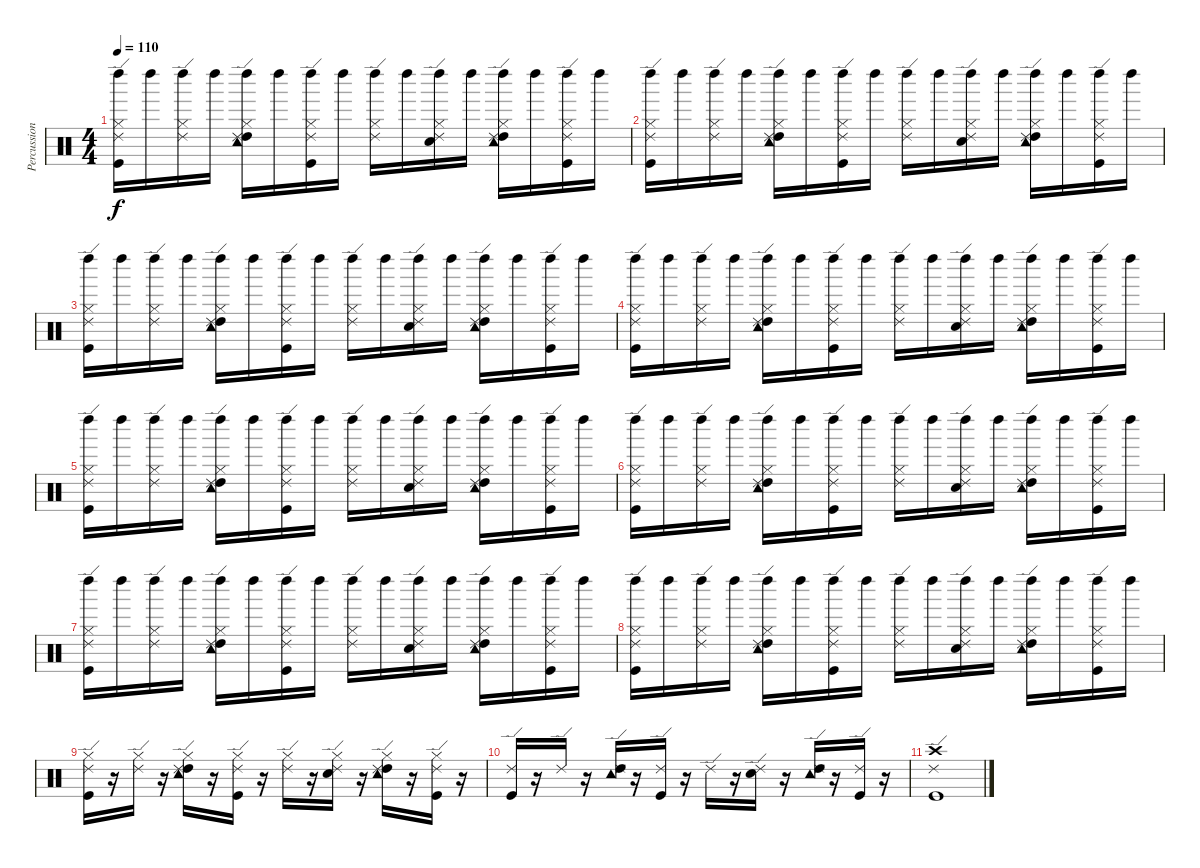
\track ("Percussions" "Percussion") {instrument percussion}
\staff {score}
\articulation defaults
\ts (4 4)
\tempo 110
\clef neutral
\ks c
("Left Maraca (hit)" "Hi-Hat (closed)" "Ride (edge) 2" "Kick (hit)").16{dy f} "Left Maraca (hit)".16 ("Left Maraca (hit)" "Hi-Hat (closed)" "Ride (edge) 2").16 "Left Maraca (hit)".16 ("Left Maraca (hit)" "High Tom (hit)" "Tambourine (hit)" "Hi-Hat (closed)" "Ride (edge) 2").16 "Left Maraca (hit)".16 ("Left Maraca (hit)" "Hi-Hat (closed)" "Ride (edge) 2" "Kick (hit)").16 "Left Maraca (hit)".16 ("Left Maraca (hit)" "Hi-Hat (closed)" "Ride (edge) 2").16 "Left Maraca (hit)".16 ("Left Maraca (hit)" "Electric Snare (hit)" "Hi-Hat (closed)" "Ride (edge) 2").16 "Left Maraca (hit)".16 ("Left Maraca (hit)" "High Tom (hit)" "Tambourine (hit)" "Hi-Hat (closed)" "Ride (edge) 2").16 "Left Maraca (hit)".16 ("Left Maraca (hit)" "Hi-Hat (closed)" "Ride (edge) 2" "Kick (hit)").16 "Left Maraca (hit)".16 |
("Left Maraca (hit)" "Hi-Hat (closed)" "Ride (edge) 2" "Kick (hit)").16 "Left Maraca (hit)".16 ("Left Maraca (hit)" "Hi-Hat (closed)" "Ride (edge) 2").16 "Left Maraca (hit)".16 ("Left Maraca (hit)" "High Tom (hit)" "Tambourine (hit)" "Hi-Hat (closed)" "Ride (edge) 2").16 "Left Maraca (hit)".16 ("Left Maraca (hit)" "Hi-Hat (closed)" "Ride (edge) 2" "Kick (hit)").16 "Left Maraca (hit)".16 ("Left Maraca (hit)" "Hi-Hat (closed)" "Ride (edge) 2").16 "Left Maraca (hit)".16 ("Left Maraca (hit)" "Electric Snare (hit)" "Hi-Hat (closed)" "Ride (edge) 2").16 "Left Maraca (hit)".16 ("Left Maraca (hit)" "High Tom (hit)" "Tambourine (hit)" "Hi-Hat (closed)" "Ride (edge) 2").16 "Left Maraca (hit)".16 ("Left Maraca (hit)" "Hi-Hat (closed)" "Ride (edge) 2" "Kick (hit)").16 "Left Maraca (hit)".16 |
("Left Maraca (hit)" "Hi-Hat (closed)" "Ride (edge) 2" "Kick (hit)").16 "Left Maraca (hit)".16 ("Left Maraca (hit)" "Hi-Hat (closed)" "Ride (edge) 2").16 "Left Maraca (hit)".16 ("Left Maraca (hit)" "High Tom (hit)" "Tambourine (hit)" "Hi-Hat (closed)" "Ride (edge) 2").16 "Left Maraca (hit)".16 ("Left Maraca (hit)" "Hi-Hat (closed)" "Ride (edge) 2" "Kick (hit)").16 "Left Maraca (hit)".16 ("Left Maraca (hit)" "Hi-Hat (closed)" "Ride (edge) 2").16 "Left Maraca (hit)".16 ("Left Maraca (hit)" "Electric Snare (hit)" "Hi-Hat (closed)" "Ride (edge) 2").16 "Left Maraca (hit)".16 ("Left Maraca (hit)" "High Tom (hit)" "Tambourine (hit)" "Hi-Hat (closed)" "Ride (edge) 2").16 "Left Maraca (hit)".16 ("Left Maraca (hit)" "Hi-Hat (closed)" "Ride (edge) 2" "Kick (hit)").16 "Left Maraca (hit)".16 |
("Left Maraca (hit)" "Hi-Hat (closed)" "Ride (edge) 2" "Kick (hit)").16 "Left Maraca (hit)".16 ("Left Maraca (hit)" "Hi-Hat (closed)" "Ride (edge) 2").16 "Left Maraca (hit)".16 ("Left Maraca (hit)" "High Tom (hit)" "Tambourine (hit)" "Hi-Hat (closed)" "Ride (edge) 2").16 "Left Maraca (hit)".16 ("Left Maraca (hit)" "Hi-Hat (closed)" "Ride (edge) 2" "Kick (hit)").16 "Left Maraca (hit)".16 ("Left Maraca (hit)" "Hi-Hat (closed)" "Ride (edge) 2").16 "Left Maraca (hit)".16 ("Left Maraca (hit)" "Electric Snare (hit)" "Hi-Hat (closed)" "Ride (edge) 2").16 "Left Maraca (hit)".16 ("Left Maraca (hit)" "High Tom (hit)" "Tambourine (hit)" "Hi-Hat (closed)" "Ride (edge) 2").16 "Left Maraca (hit)".16 ("Left Maraca (hit)" "Hi-Hat (closed)" "Ride (edge) 2" "Kick (hit)").16 "Left Maraca (hit)".16 |
("Left Maraca (hit)" "Hi-Hat (closed)" "Ride (edge) 2" "Kick (hit)").16 "Left Maraca (hit)".16 ("Left Maraca (hit)" "Hi-Hat (closed)" "Ride (edge) 2").16 "Left Maraca (hit)".16 ("Left Maraca (hit)" "High Tom (hit)" "Tambourine (hit)" "Hi-Hat (closed)" "Ride (edge) 2").16 "Left Maraca (hit)".16 ("Left Maraca (hit)" "Hi-Hat (closed)" "Ride (edge) 2" "Kick (hit)").16 "Left Maraca (hit)".16 ("Left Maraca (hit)" "Hi-Hat (closed)" "Ride (edge) 2").16 "Left Maraca (hit)".16 ("Left Maraca (hit)" "Electric Snare (hit)" "Hi-Hat (closed)" "Ride (edge) 2").16 "Left Maraca (hit)".16 ("Left Maraca (hit)" "High Tom (hit)" "Tambourine (hit)" "Hi-Hat (closed)" "Ride (edge) 2").16 "Left Maraca (hit)".16 ("Left Maraca (hit)" "Hi-Hat (closed)" "Ride (edge) 2" "Kick (hit)").16 "Left Maraca (hit)".16 |
("Left Maraca (hit)" "Hi-Hat (closed)" "Ride (edge) 2" "Kick (hit)").16 "Left Maraca (hit)".16 ("Left Maraca (hit)" "Hi-Hat (closed)" "Ride (edge) 2").16 "Left Maraca (hit)".16 ("Left Maraca (hit)" "High Tom (hit)" "Tambourine (hit)" "Hi-Hat (closed)" "Ride (edge) 2").16 "Left Maraca (hit)".16 ("Left Maraca (hit)" "Hi-Hat (closed)" "Ride (edge) 2" "Kick (hit)").16 "Left Maraca (hit)".16 ("Left Maraca (hit)" "Hi-Hat (closed)" "Ride (edge) 2").16 "Left Maraca (hit)".16 ("Left Maraca (hit)" "Electric Snare (hit)" "Hi-Hat (closed)" "Ride (edge) 2").16 "Left Maraca (hit)".16 ("Left Maraca (hit)" "High Tom (hit)" "Tambourine (hit)" "Hi-Hat (closed)" "Ride (edge) 2").16 "Left Maraca (hit)".16 ("Left Maraca (hit)" "Hi-Hat (closed)" "Ride (edge) 2" "Kick (hit)").16 "Left Maraca (hit)".16 |
("Left Maraca (hit)" "Hi-Hat (closed)" "Ride (edge) 2" "Kick (hit)").16 "Left Maraca (hit)".16 ("Left Maraca (hit)" "Hi-Hat (closed)" "Ride (edge) 2").16 "Left Maraca (hit)".16 ("Left Maraca (hit)" "High Tom (hit)" "Tambourine (hit)" "Hi-Hat (closed)" "Ride (edge) 2").16 "Left Maraca (hit)".16 ("Left Maraca (hit)" "Hi-Hat (closed)" "Ride (edge) 2" "Kick (hit)").16 "Left Maraca (hit)".16 ("Left Maraca (hit)" "Hi-Hat (closed)" "Ride (edge) 2").16 "Left Maraca (hit)".16 ("Left Maraca (hit)" "Electric Snare (hit)" "Hi-Hat (closed)" "Ride (edge) 2").16 "Left Maraca (hit)".16 ("Left Maraca (hit)" "High Tom (hit)" "Tambourine (hit)" "Hi-Hat (closed)" "Ride (edge) 2").16 "Left Maraca (hit)".16 ("Left Maraca (hit)" "Hi-Hat (closed)" "Ride (edge) 2" "Kick (hit)").16 "Left Maraca (hit)".16 |
("Left Maraca (hit)" "Hi-Hat (closed)" "Ride (edge) 2" "Kick (hit)").16 "Left Maraca (hit)".16 ("Left Maraca (hit)" "Hi-Hat (closed)" "Ride (edge) 2").16 "Left Maraca (hit)".16 ("Left Maraca (hit)" "High Tom (hit)" "Tambourine (hit)" "Hi-Hat (closed)" "Ride (edge) 2").16 "Left Maraca (hit)".16 ("Left Maraca (hit)" "Hi-Hat (closed)" "Ride (edge) 2" "Kick (hit)").16 "Left Maraca (hit)".16 ("Left Maraca (hit)" "Hi-Hat (closed)" "Ride (edge) 2").16 "Left Maraca (hit)".16 ("Left Maraca (hit)" "Electric Snare (hit)" "Hi-Hat (closed)" "Ride (edge) 2").16 "Left Maraca (hit)".16 ("Left Maraca (hit)" "High Tom (hit)" "Tambourine (hit)" "Hi-Hat (closed)" "Ride (edge) 2").16 "Left Maraca (hit)".16 ("Left Maraca (hit)" "Hi-Hat (closed)" "Ride (edge) 2" "Kick (hit)").16 "Left Maraca (hit)".16 |
("Hi-Hat (closed)" "Ride (edge) 2" "Kick (hit)").16 r.16 ("Hi-Hat (closed)" "Ride (edge) 2").16 r.16 ("High Tom (hit)" "Tambourine (hit)" "Hi-Hat (closed)" "Ride (edge) 2").16 r.16 ("Hi-Hat (closed)" "Ride (edge) 2" "Kick (hit)").16 r.16 ("Hi-Hat (closed)" "Ride (edge) 2").16 r.16 ("Electric Snare (hit)" "Hi-Hat (closed)" "Ride (edge) 2").16 r.16 ("High Tom (hit)" "Tambourine (hit)" "Hi-Hat (closed)" "Ride (edge) 2").16 r.16 ("Hi-Hat (closed)" "Ride (edge) 2" "Kick (hit)").16 r.16 |
("Ride (edge) 2" "Kick (hit)").16 r.16 "Ride (edge) 2".16 r.16 ("High Tom (hit)" "Tambourine (hit)" "Ride (edge) 2").16 r.16 ("Ride (edge) 2" "Kick (hit)").16 r.16 "Ride (edge) 2".16 r.16 ("Electric Snare (hit)" "Ride (edge) 2").16 r.16 ("High Tom (hit)" "Tambourine (hit)" "Ride (edge) 2").16 r.16 ("Ride (edge) 2" "Kick (hit)").16 r.16 |
("Crash high (hit)" "Ride (edge) 2" "Kick (hit)").1
